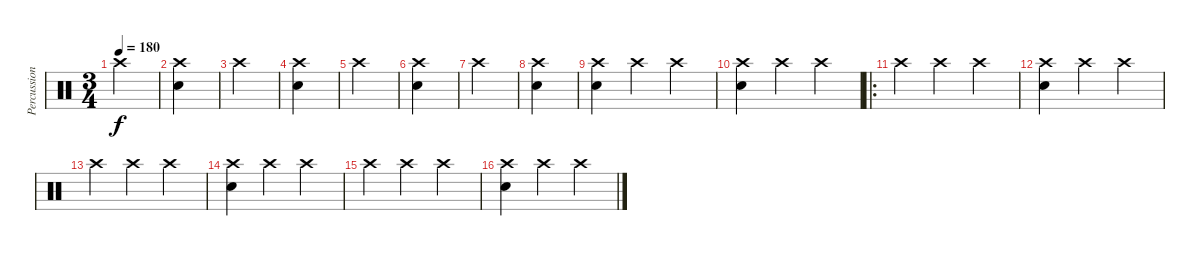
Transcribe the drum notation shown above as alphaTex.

\track ("Percussion" "Percussion") {instrument percussion}
\staff {score}
\articulation defaults
\ts (3 4)
\tempo 180
\clef neutral
\ks c "Crash high (hit)".4{dy f}
|
("Crash high (hit)" "Snare (hit) 2").4 |
"Crash high (hit)".4 |
("Crash high (hit)" "Snare (hit) 2").4 |
"Crash high (hit)".4 |
("Crash high (hit)" "Snare (hit) 2").4 |
"Crash high (hit)".4 |
("Crash high (hit)" "Snare (hit) 2").4 |
("Crash high (hit)" "Snare (hit) 2").4 "Crash high (hit)".4 "Crash high (hit)".4 |
("Crash high (hit)" "Snare (hit) 2").4 "Crash high (hit)".4 "Crash high (hit)".4 |
\ro "Crash high (hit)".4 "Crash high (hit)".4 "Crash high (hit)".4
|
("Crash high (hit)" "Snare (hit) 2").4 "Crash high (hit)".4 "Crash high (hit)".4 |
"Crash high (hit)".4 "Crash high (hit)".4 "Crash high (hit)".4 |
("Crash high (hit)" "Snare (hit) 2").4 "Crash high (hit)".4 "Crash high (hit)".4 |
"Crash high (hit)".4 "Crash high (hit)".4 "Crash high (hit)".4 |
("Crash high (hit)" "Snare (hit) 2").4 "Crash high (hit)".4 "Crash high (hit)".4
